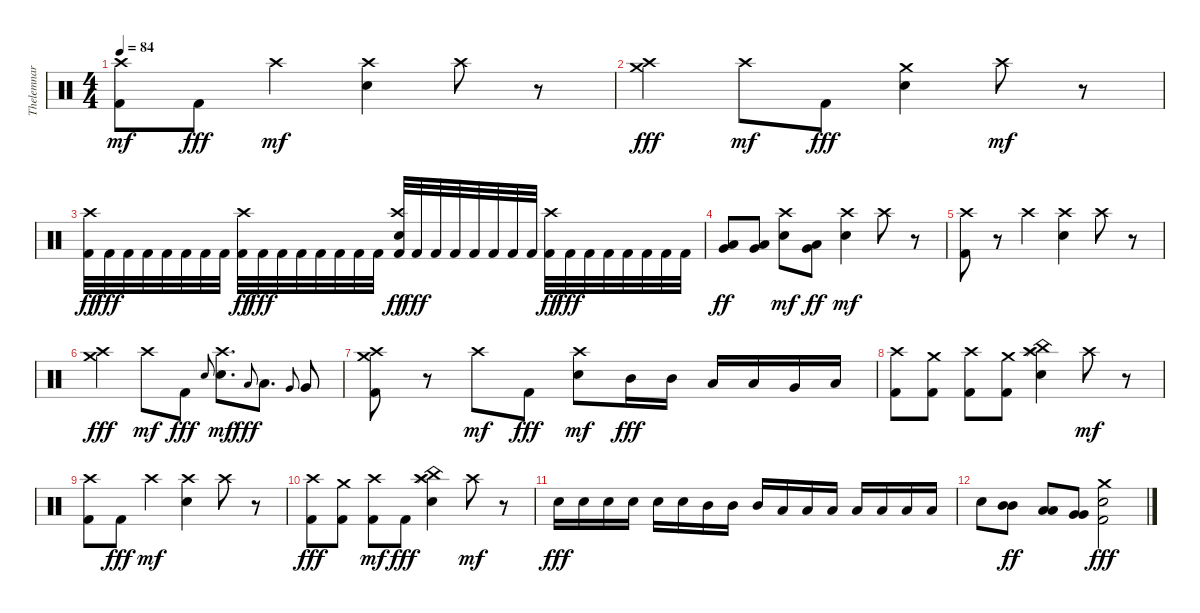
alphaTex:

\track ("Thelemnar (Drums)" "Thelemnar ") {instrument percussion}
\staff {score}
\articulation defaults
\ts (4 4)
\tempo 84
\clef neutral
\ks c
("Kick (hit) 2" "Crash high (hit)").8{dy mf} "Kick (hit) 2".8{dy fff} "Crash high (hit)".4{dy mf} ("Electric Snare (hit)" "Crash high (hit)").4 "Crash high (hit)".8 r.8 |
("Crash medium (hit)" "Crash high (hit)").4{dy fff} "Crash high (hit)".8{dy mf} "Kick (hit) 2".8{dy fff} ("Electric Snare (hit)" "Crash medium (hit)").4 "Crash high (hit)".8{dy mf} r.8 |
("Kick (hit) 2" "Crash high (hit)").32{dy ff} "Kick (hit) 2".32{dy fff} "Kick (hit) 2".32 "Kick (hit) 2".32 "Kick (hit) 2".32 "Kick (hit) 2".32 "Kick (hit) 2".32 "Kick (hit) 2".32 ("Kick (hit) 2" "Crash high (hit)").32{dy ff} "Kick (hit) 2".32{dy fff} "Kick (hit) 2".32 "Kick (hit) 2".32 "Kick (hit) 2".32 "Kick (hit) 2".32 "Kick (hit) 2".32 "Kick (hit) 2".32 ("Kick (hit) 2" "Electric Snare (hit)" "Crash high (hit)").32{dy ff} "Kick (hit) 2".32{dy fff} "Kick (hit) 2".32 "Kick (hit) 2".32 "Kick (hit) 2".32 "Kick (hit) 2".32 "Kick (hit) 2".32 "Kick (hit) 2".32 ("Kick (hit) 2" "Crash high (hit)").32{dy ff} "Kick (hit) 2".32{dy fff} "Kick (hit) 2".32 "Kick (hit) 2".32 "Kick (hit) 2".32 "Kick (hit) 2".32 "Kick (hit) 2".32 "Kick (hit) 2".32 |
("Very Low Tom (hit)" "Low Tom (hit)").8{dy ff} ("Very Low Tom (hit)" "Low Tom (hit)").8 ("Electric Snare (hit)" "Crash high (hit)").8{dy mf} ("Very Low Tom (hit)" "Low Tom (hit)").8{dy ff} ("Electric Snare (hit)" "Crash high (hit)").4{dy mf} "Crash high (hit)".8 r.8 |
("Kick (hit) 2" "Crash high (hit)").8 r.8 "Crash high (hit)".4 ("Electric Snare (hit)" "Crash high (hit)").4 "Crash high (hit)".8 r.8 |
("Crash medium (hit)" "Crash high (hit)").4{dy fff} "Crash high (hit)".8{dy mf} "Kick (hit) 2".8{dy fff} "Electric Snare (hit)".8{gr onbeat} ("Electric Snare (hit)" "Crash high (hit)").8{d dy mf} "Low Tom (hit)".8{gr onbeat dy fff} "Low Tom (hit)".8{d} "Very Low Tom (hit)".8{gr onbeat} "Very Low Tom (hit)".8 |
("Kick (hit) 2" "Crash high (hit)" "Crash medium (hit)").8 r.8 "Crash high (hit)".8{dy mf} "Kick (hit) 2".8{dy fff} ("Electric Snare (hit)" "Crash high (hit)").8{dy mf} "Mid Tom (hit)".16{dy fff} "Mid Tom (hit)".16 "Low Tom (hit)".16 "Low Tom (hit)".16 "Very Low Tom (hit)".16 "Low Floor Tom (hit)".16 |
("Kick (hit) 2" "Crash high (hit)").8 ("Kick (hit) 2" "Crash medium (hit)").8 ("Kick (hit) 2" "Crash high (hit)").8 ("Kick (hit) 2" "Crash medium (hit)").8 ("Electric Snare (hit)" "Crash high (hit)" "China (hit)" "Splash (hit)").4 "Crash high (hit)".8{dy mf} r.8 |
("Kick (hit) 2" "Crash high (hit)").8 "Kick (hit) 2".8{dy fff} "Crash high (hit)".4{dy mf} ("Electric Snare (hit)" "Crash high (hit)").4 "Crash high (hit)".8 r.8 |
("Kick (hit) 2" "Crash high (hit)").8{dy fff} ("Kick (hit) 2" "Crash medium (hit)").8 ("Kick (hit) 2" "Crash high (hit)").8{dy mf} "Kick (hit) 2".8{dy fff} ("Electric Snare (hit)" "Crash high (hit)" "China (hit)" "Splash (hit)").4 "Crash high (hit)".8{dy mf} r.8 |
"Electric Snare (hit)".16{dy fff} "Electric Snare (hit)".16 "Electric Snare (hit)".16 "Electric Snare (hit)".16 "Electric Snare (hit)".16 "Electric Snare (hit)".16 "Mid Tom (hit)".16 "Mid Tom (hit)".16 "Mid Tom (hit)".16 "Low Tom (hit)".16 "Low Tom (hit)".16 "Low Tom (hit)".16 "Low Tom (hit)".16 "Low Tom (hit)".16 "Low Tom (hit)".16 "Low Tom (hit)".16 |
"Electric Snare (hit)".8 ("Mid Tom (hit)" "Mid Tom (hit)").8{dy ff} ("Low Tom (hit)" "Low Tom (hit)").8 ("Very Low Tom (hit)" "Very Low Tom (hit)").8 ("Kick (hit) 2" "Electric Snare (hit)" "Crash medium (hit)").2{dy fff}
